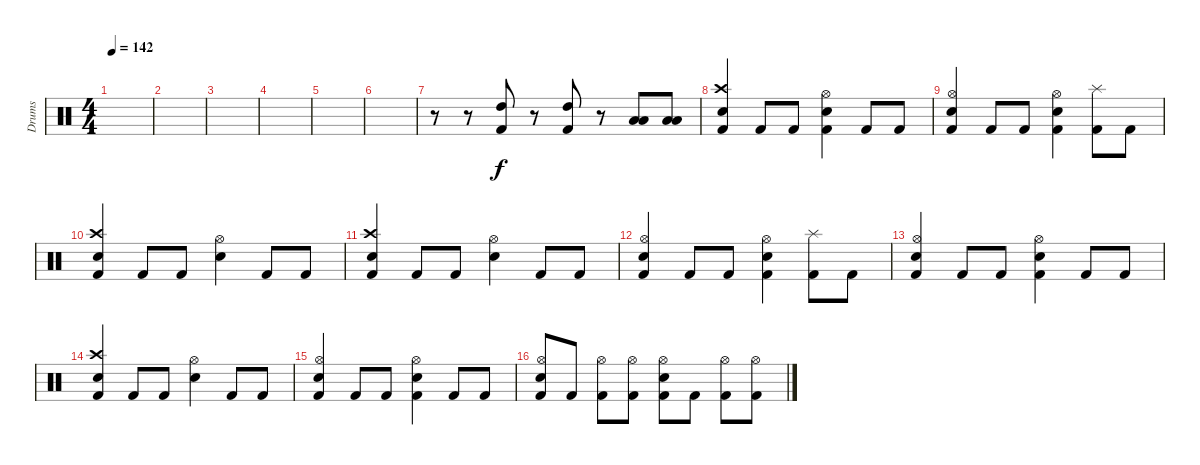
\track ("Drums" "Drums") {instrument percussion}
\staff {score}
\articulation defaults
\ts (4 4)
\tempo 142
\clef neutral
\ks c
|
|
|
|
|
|
r.8 r.8 ("High Tom (hit)" "Kick (hit) 2").8 r.8 ("High Tom (hit)" "Kick (hit) 2").8 r.8 ("Low Tom (hit)" "Low Tom (hit)").8 ("Low Floor Tom (hit)" "Low Floor Tom (hit)").8 |
("Crash high (hit)" "Snare (hit) 2" "Kick (hit) 2").4 "Kick (hit) 2".8 "Kick (hit) 2".8 ("Hi-Hat (open)" "Snare (hit) 2" "Kick (hit) 2").4 "Kick (hit) 2".8 "Kick (hit) 2".8 |
("Hi-Hat (open)" "Electric Snare (hit)" "Kick (hit) 2").4 "Kick (hit) 2".8 "Kick (hit) 2".8 ("Hi-Hat (open)" "Snare (hit) 2" "Kick (hit) 2").4 ("Splash (hit)" "Kick (hit) 2").8 "Kick (hit) 2".8 |
("Crash high (hit)" "Electric Snare (hit)" "Kick (hit) 2").4 "Kick (hit) 2".8 "Kick (hit) 2".8 ("Hi-Hat (open)" "Snare (hit) 2").4 "Kick (hit) 2".8 "Kick (hit) 2".8 |
("Crash high (hit)" "Electric Snare (hit)" "Kick (hit) 2").4 "Kick (hit) 2".8 "Kick (hit) 2".8 ("Hi-Hat (open)" "Snare (hit) 2").4 "Kick (hit) 2".8 "Kick (hit) 2".8 |
("Hi-Hat (open)" "Electric Snare (hit)" "Kick (hit) 2").4 "Kick (hit) 2".8 "Kick (hit) 2".8 ("Hi-Hat (open)" "Snare (hit) 2" "Kick (hit) 2").4 ("Splash (hit)" "Kick (hit) 2").8 "Kick (hit) 2".8 |
("Hi-Hat (open)" "Electric Snare (hit)" "Kick (hit) 2").4 "Kick (hit) 2".8 "Kick (hit) 2".8 ("Hi-Hat (open)" "Snare (hit) 2" "Kick (hit) 2").4 "Kick (hit) 2".8 "Kick (hit) 2".8 |
("Crash high (hit)" "Electric Snare (hit)" "Kick (hit) 2").4 "Kick (hit) 2".8 "Kick (hit) 2".8 ("Hi-Hat (open)" "Snare (hit) 2").4 "Kick (hit) 2".8 "Kick (hit) 2".8 |
("Hi-Hat (open)" "Electric Snare (hit)" "Kick (hit) 2").4 "Kick (hit) 2".8 "Kick (hit) 2".8 ("Hi-Hat (open)" "Snare (hit) 2" "Kick (hit) 2").4 "Kick (hit) 2".8 "Kick (hit) 2".8 |
("Hi-Hat (open)" "Electric Snare (hit)" "Kick (hit) 2").8 "Kick (hit) 2".8 ("Hi-Hat (open)" "Kick (hit) 2").8 ("Hi-Hat (open)" "Kick (hit) 2").8 ("Hi-Hat (open)" "Snare (hit) 2" "Kick (hit) 2").8 "Kick (hit) 2".8 ("Hi-Hat (open)" "Kick (hit) 2").8 ("Hi-Hat (open)" "Kick (hit) 2").8
